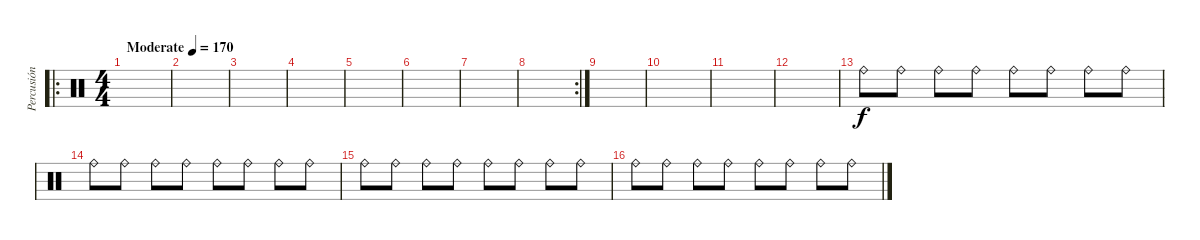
\track ("Percusión" "Percusión") {instrument percussion}
\staff {score}
\articulation defaults
\ro
\ts (4 4)
\tempo (170 "Moderate")
\clef neutral
\ks c
|
|
|
|
|
|
|
\rc 2
|
|
|
|
|
"Ride (bell)".8 "Ride (bell)".8 "Ride (bell)".8 "Ride (bell)".8 "Ride (bell)".8 "Ride (bell)".8 "Ride (bell)".8 "Ride (bell)".8 |
"Ride (bell)".8 "Ride (bell)".8 "Ride (bell)".8 "Ride (bell)".8 "Ride (bell)".8 "Ride (bell)".8 "Ride (bell)".8 "Ride (bell)".8 |
"Ride (bell)".8 "Ride (bell)".8 "Ride (bell)".8 "Ride (bell)".8 "Ride (bell)".8 "Ride (bell)".8 "Ride (bell)".8 "Ride (bell)".8 |
"Ride (bell)".8 "Ride (bell)".8 "Ride (bell)".8 "Ride (bell)".8 "Ride (bell)".8 "Ride (bell)".8 "Ride (bell)".8 "Ride (bell)".8
